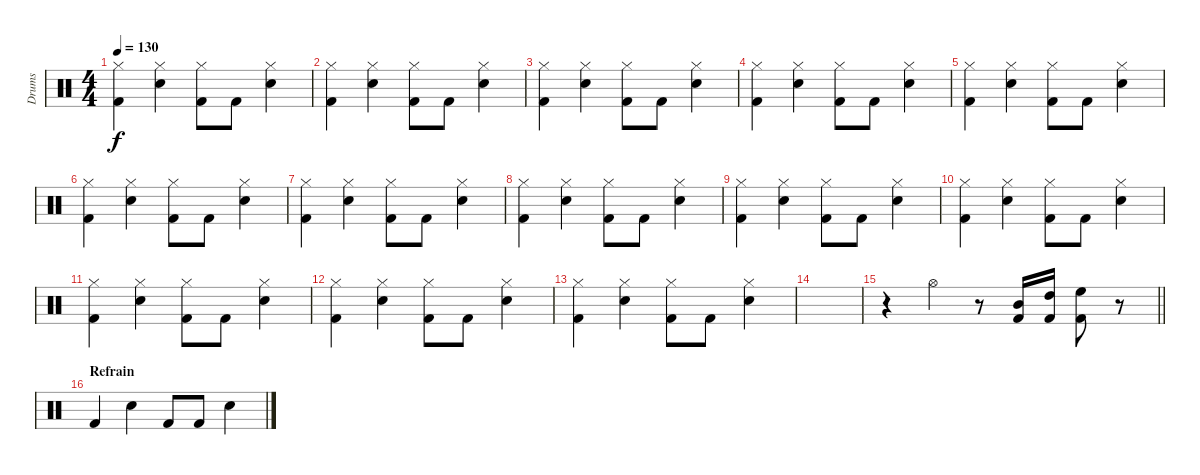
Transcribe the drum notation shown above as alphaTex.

\track ("Drums" "Drums") {instrument percussion}
\staff {score}
\articulation defaults
\ts (4 4)
\tempo 130
\clef neutral
\ks c
("Hi-Hat (closed)" "Kick (hit) 2").4{dy f} ("Hi-Hat (closed)" "Snare (hit) 2").4 ("Hi-Hat (closed)" "Kick (hit) 2").8 "Kick (hit) 2".8 ("Hi-Hat (closed)" "Snare (hit) 2").4 |
("Hi-Hat (closed)" "Kick (hit) 2").4 ("Hi-Hat (closed)" "Snare (hit) 2").4 ("Hi-Hat (closed)" "Kick (hit) 2").8 "Kick (hit) 2".8 ("Hi-Hat (closed)" "Snare (hit) 2").4 |
("Hi-Hat (closed)" "Kick (hit) 2").4 ("Hi-Hat (closed)" "Snare (hit) 2").4 ("Hi-Hat (closed)" "Kick (hit) 2").8 "Kick (hit) 2".8 ("Hi-Hat (closed)" "Snare (hit) 2").4 |
("Hi-Hat (closed)" "Kick (hit) 2").4 ("Hi-Hat (closed)" "Snare (hit) 2").4 ("Hi-Hat (closed)" "Kick (hit) 2").8 "Kick (hit) 2".8 ("Hi-Hat (closed)" "Snare (hit) 2").4 |
("Hi-Hat (closed)" "Kick (hit) 2").4 ("Hi-Hat (closed)" "Snare (hit) 2").4 ("Hi-Hat (closed)" "Kick (hit) 2").8 "Kick (hit) 2".8 ("Hi-Hat (closed)" "Snare (hit) 2").4 |
("Hi-Hat (closed)" "Kick (hit) 2").4 ("Hi-Hat (closed)" "Snare (hit) 2").4 ("Hi-Hat (closed)" "Kick (hit) 2").8 "Kick (hit) 2".8 ("Hi-Hat (closed)" "Snare (hit) 2").4 |
("Hi-Hat (closed)" "Kick (hit) 2").4 ("Hi-Hat (closed)" "Snare (hit) 2").4 ("Hi-Hat (closed)" "Kick (hit) 2").8 "Kick (hit) 2".8 ("Hi-Hat (closed)" "Snare (hit) 2").4 |
("Hi-Hat (closed)" "Kick (hit) 2").4 ("Hi-Hat (closed)" "Snare (hit) 2").4 ("Hi-Hat (closed)" "Kick (hit) 2").8 "Kick (hit) 2".8 ("Hi-Hat (closed)" "Snare (hit) 2").4 |
("Hi-Hat (closed)" "Kick (hit) 2").4 ("Hi-Hat (closed)" "Snare (hit) 2").4 ("Hi-Hat (closed)" "Kick (hit) 2").8 "Kick (hit) 2".8 ("Hi-Hat (closed)" "Snare (hit) 2").4 |
("Hi-Hat (closed)" "Kick (hit) 2").4 ("Hi-Hat (closed)" "Snare (hit) 2").4 ("Hi-Hat (closed)" "Kick (hit) 2").8 "Kick (hit) 2".8 ("Hi-Hat (closed)" "Snare (hit) 2").4 |
("Hi-Hat (closed)" "Kick (hit) 2").4 ("Hi-Hat (closed)" "Snare (hit) 2").4 ("Hi-Hat (closed)" "Kick (hit) 2").8 "Kick (hit) 2".8 ("Hi-Hat (closed)" "Snare (hit) 2").4 |
("Hi-Hat (closed)" "Kick (hit) 2").4 ("Hi-Hat (closed)" "Snare (hit) 2").4 ("Hi-Hat (closed)" "Kick (hit) 2").8 "Kick (hit) 2".8 ("Hi-Hat (closed)" "Snare (hit) 2").4 |
("Hi-Hat (closed)" "Kick (hit) 2").4 ("Hi-Hat (closed)" "Snare (hit) 2").4 ("Hi-Hat (closed)" "Kick (hit) 2").8 "Kick (hit) 2".8 ("Hi-Hat (closed)" "Snare (hit) 2").4 |
|
\barLineRight lightlight
r.4 "Hi-Hat (open)".4 r.8 ("Mid Tom (hit)" "Kick (hit) 2").16 ("High Tom (hit)" "Kick (hit) 2").16 ("High Floor Tom (hit)" "Kick (hit) 2").8 r.8 |
\section ("" "Refrain")
"Kick (hit) 2".4 "Snare (hit) 2".4 "Kick (hit) 2".8 "Kick (hit) 2".8 "Snare (hit) 2".4
